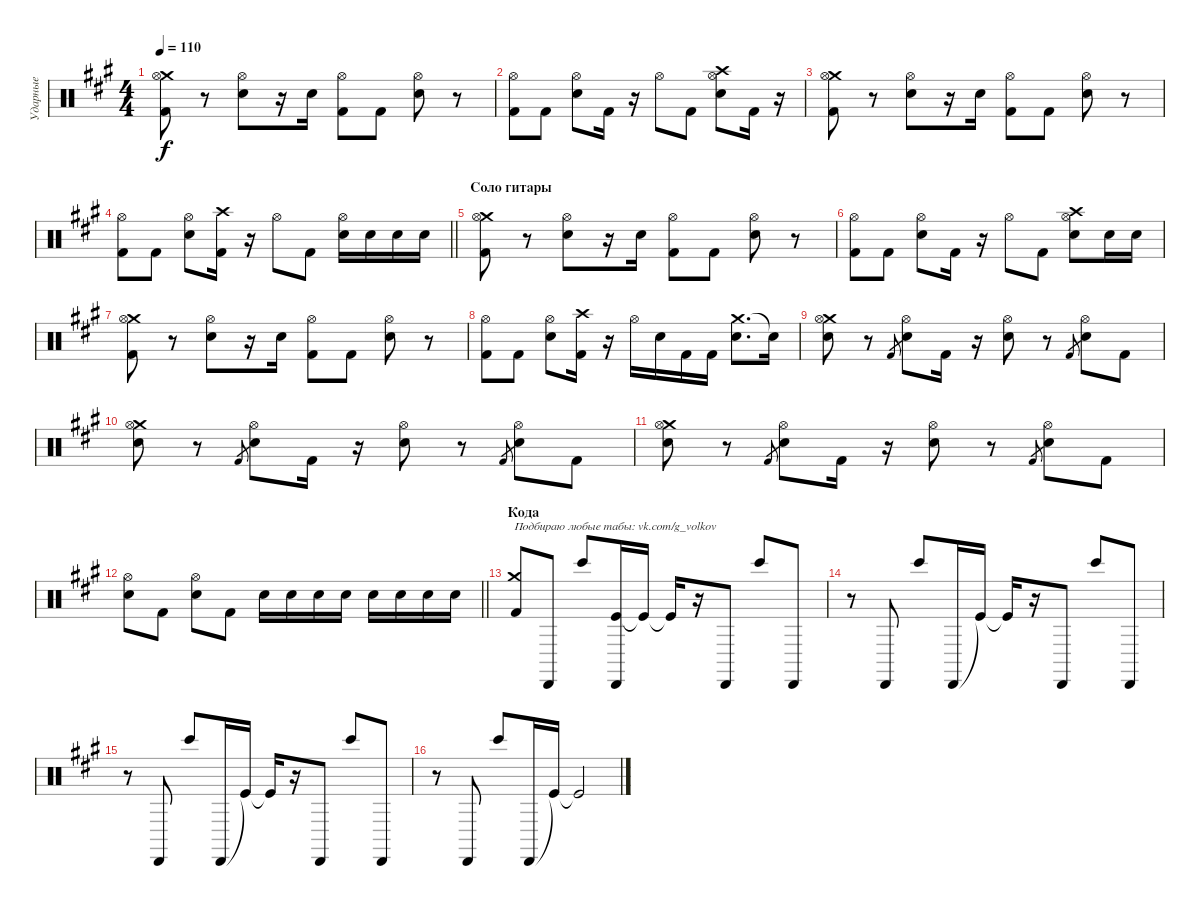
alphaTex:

\track ("Ударные" "Ударные") {instrument percussion}
\staff {score}
\articulation defaults
\ts (4 4)
\tempo 110
\clef neutral
\ks f#minor
("Crash medium (hit)" "Kick (hit) 2" "Hi-Hat (open)").8{dy f} r.8 ("Electric Snare (hit)" "Hi-Hat (open)").8 r.16 "Electric Snare (hit)".16 ("Kick (hit) 2" "Hi-Hat (open)").8 "Kick (hit) 2".8 ("Electric Snare (hit)" "Hi-Hat (open)").8 r.8 |
("Kick (hit) 2" "Hi-Hat (open)").8 "Kick (hit) 2".8 ("Electric Snare (hit)" "Hi-Hat (open)").8 "Kick (hit) 2".16 r.16 "Hi-Hat (open)".8 "Kick (hit) 2".8 ("Crash high (hit)" "Electric Snare (hit)" "Hi-Hat (open)").8 "Kick (hit) 2".16 r.16 |
("Crash medium (hit)" "Kick (hit) 2" "Hi-Hat (open)").8 r.8 ("Electric Snare (hit)" "Hi-Hat (open)").8 r.16 "Electric Snare (hit)".16 ("Kick (hit) 2" "Hi-Hat (open)").8 "Kick (hit) 2".8 ("Electric Snare (hit)" "Hi-Hat (open)").8 r.8 |
\barLineRight lightlight
("Kick (hit) 2" "Hi-Hat (open)").8 "Kick (hit) 2".8 ("Electric Snare (hit)" "Hi-Hat (open)").8 ("Crash high (hit)" "Kick (hit) 2").16 r.16 "Hi-Hat (open)".8 "Kick (hit) 2".8 ("Electric Snare (hit)" "Hi-Hat (open)").16 "Electric Snare (hit)".16 "Electric Snare (hit)".16 "Electric Snare (hit)".16 |
\section ("" "Соло гитары")
("Crash medium (hit)" "Kick (hit) 2" "Hi-Hat (open)").8 r.8 ("Electric Snare (hit)" "Hi-Hat (open)").8 r.16 "Electric Snare (hit)".16 ("Kick (hit) 2" "Hi-Hat (open)").8 "Kick (hit) 2".8 ("Electric Snare (hit)" "Hi-Hat (open)").8 r.8 |
("Kick (hit) 2" "Hi-Hat (open)").8 "Kick (hit) 2".8 ("Electric Snare (hit)" "Hi-Hat (open)").8 "Kick (hit) 2".16 r.16 "Hi-Hat (open)".8 "Kick (hit) 2".8 ("Crash high (hit)" "Electric Snare (hit)" "Hi-Hat (open)").8 "Electric Snare (hit)".16 "Electric Snare (hit)".16 |
("Crash medium (hit)" "Kick (hit) 2" "Hi-Hat (open)").8 r.8 ("Electric Snare (hit)" "Hi-Hat (open)").8 r.16 "Electric Snare (hit)".16 ("Kick (hit) 2" "Hi-Hat (open)").8 "Kick (hit) 2".8 ("Electric Snare (hit)" "Hi-Hat (open)").8 r.8 |
("Kick (hit) 2" "Hi-Hat (open)").8 "Kick (hit) 2".8 ("Electric Snare (hit)" "Hi-Hat (open)").8 ("Crash high (hit)" "Kick (hit) 2").16 r.16 "Hi-Hat (open)".16 "Electric Snare (hit)".16 "Kick (hit) 2".16 "Kick (hit) 2".16 ("Crash medium (hit)" "Electric Snare (hit)").8{d} "Electric Snare (hit)"{t}.16 |
("Crash medium (hit)" "Electric Snare (hit)" "Hi-Hat (open)").8 r.8 "Kick (hit) 2".8{gr} ("Electric Snare (hit)" "Hi-Hat (open)").8 "Kick (hit) 2".16 r.16 ("Electric Snare (hit)" "Hi-Hat (open)").8 r.8 "Kick (hit) 2".8{gr} ("Electric Snare (hit)" "Hi-Hat (open)").8 "Kick (hit) 2".8 |
("Crash medium (hit)" "Electric Snare (hit)" "Hi-Hat (open)").8 r.8 "Kick (hit) 2".8{gr} ("Electric Snare (hit)" "Hi-Hat (open)").8 "Kick (hit) 2".16 r.16 ("Electric Snare (hit)" "Hi-Hat (open)").8 r.8 "Kick (hit) 2".8{gr} ("Electric Snare (hit)" "Hi-Hat (open)").8 "Kick (hit) 2".8 |
("Crash medium (hit)" "Electric Snare (hit)" "Hi-Hat (open)").8 r.8 "Kick (hit) 2".8{gr} ("Electric Snare (hit)" "Hi-Hat (open)").8 "Kick (hit) 2".16 r.16 ("Electric Snare (hit)" "Hi-Hat (open)").8 r.8 "Kick (hit) 2".8{gr} ("Electric Snare (hit)" "Hi-Hat (open)").8 "Kick (hit) 2".8 |
\barLineRight lightlight
("Electric Snare (hit)" "Hi-Hat (open)").8 "Kick (hit) 2".8 ("Electric Snare (hit)" "Hi-Hat (open)").8 "Kick (hit) 2".8 "Electric Snare (hit)".16 "Electric Snare (hit)".16 "Electric Snare (hit)".16 "Electric Snare (hit)".16 "Electric Snare (hit)".16 "Electric Snare (hit)".16 "Electric Snare (hit)".16 "Electric Snare (hit)".16 |
\section ("" "Кода")
("Crash medium (hit)" "Kick (hit) 2").8{txt "Подбираю любые табы: vk.com/g_volkov"} "Cabasa (hit)".8 "Bongo High (hit)".8 ("Kick (hit)" "Cabasa (hit)").16 "Kick (hit)"{t}.16 "Kick (hit)"{t}.16 r.16 "Cabasa (hit)".8 "Bongo High (hit)".8 "Cabasa (hit)".8 |
r.8 "Cabasa (hit)".8 "Bongo High (hit)".8 "Cabasa (hit)".16 "Kick (hit)"{t}.16 "Kick (hit)"{t}.16 r.16 "Cabasa (hit)".8 "Bongo High (hit)".8 "Cabasa (hit)".8 |
r.8 "Cabasa (hit)".8 "Bongo High (hit)".8 "Cabasa (hit)".16 "Kick (hit)"{t}.16 "Kick (hit)"{t}.16 r.16 "Cabasa (hit)".8 "Bongo High (hit)".8 "Cabasa (hit)".8 |
r.8 "Cabasa (hit)".8 "Bongo High (hit)".8 "Cabasa (hit)".16 "Kick (hit)"{t}.16 "Kick (hit)"{t}.2
